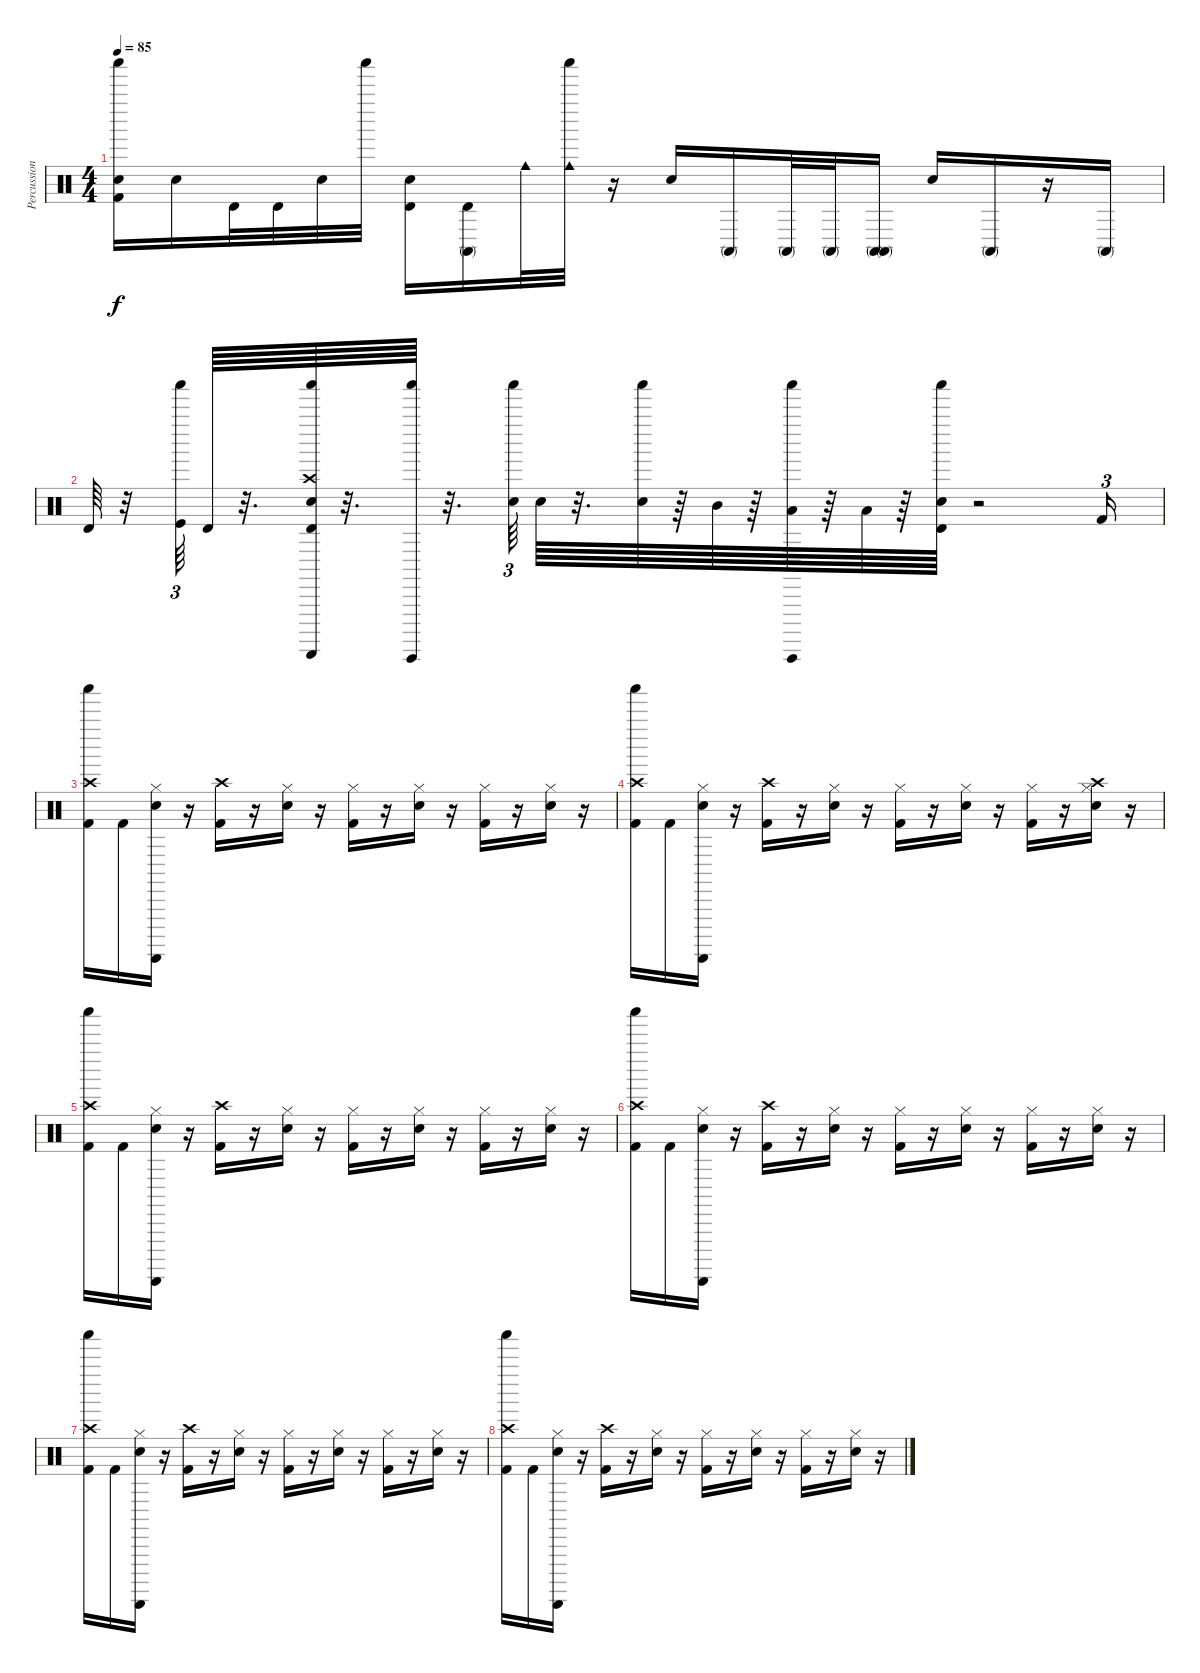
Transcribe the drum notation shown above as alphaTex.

\track ("Percussioni" "Percussion") {instrument percussion}
\staff {score}
\articulation defaults
\ts (4 4)
\tempo 85
\clef neutral
\ks c
("Shaker (hit)" "Electric Snare (hit)" "Kick (hit) 2").16{dy f} "Electric Snare (hit)".16 "Timbale high (hit)".32 "Timbale high (hit)".32 "Snare (hit)".32 "Shaker (hit)".32 ("Timbale high (hit)" "Electric Snare (hit)").16 ("Conga high (mute)" "Timbale high (hit)").16 "Cowbell medium (hit)".32 ("Shaker (hit)" "Cowbell medium (hit)").32 r.16 "Electric Snare (hit)".16 "Conga high (mute)".16 "Conga high (mute)".32 "Conga high (mute)".32 ("Conga high (mute)" "Conga high (mute)").16 "Electric Snare (hit)".16 "Conga high (mute)".16 r.16 "Conga high (mute)".16 |
"Timbale high (hit)".64 r.32 ("Shaker (hit)" "Kick (hit)").64{tu (3 2)} "Timbale high (hit)".64 r.32{d} ("Guiro (scrap-return)" "Shaker (hit)" "Electric Snare (hit)" "Crash high (hit)" "Timbale high (hit)").64 r.32{d} ("Shaker (hit)" "Guiro (hit)").64 r.32{d} ("Shaker (hit)" "Electric Snare (hit)").64{tu (3 2)} "Electric Snare (hit)".64 r.32{d} ("Shaker (hit)" "Electric Snare (hit)").64 r.64 "Mid Tom (hit)".64 r.64 ("Shaker (hit)" "Guiro (hit)" "Low Tom (hit)").64 r.64 "Low Floor Tom (hit)".64 r.64 ("Electric Snare (hit)" "Timbale high (hit)" "Shaker (hit)").64 r.2 "Kick (hit) 2".16{tu (3 2)} |
("Shaker (hit)" "Crash high (hit)" "Kick (hit) 2").16 "Kick (hit) 2".16 ("Hi-Hat (closed)" "Guiro (scrap-return)" "Electric Snare (hit)").16 r.16 ("Crash high (hit)" "Kick (hit) 2").16 r.16 ("Hi-Hat (closed)" "Electric Snare (hit)").16 r.16 ("Hi-Hat (closed)" "Kick (hit) 2").16 r.16 ("Hi-Hat (closed)" "Electric Snare (hit)").16 r.16 ("Hi-Hat (closed)" "Kick (hit) 2").16 r.16 ("Hi-Hat (closed)" "Electric Snare (hit)").16 r.16 |
("Shaker (hit)" "Crash high (hit)" "Kick (hit) 2").16 "Kick (hit) 2".16 ("Hi-Hat (closed)" "Guiro (scrap-return)" "Electric Snare (hit)").16 r.16 ("Crash high (hit)" "Kick (hit) 2").16 r.16 ("Hi-Hat (closed)" "Electric Snare (hit)").16 r.16 ("Hi-Hat (closed)" "Kick (hit) 2").16 r.16 ("Hi-Hat (closed)" "Electric Snare (hit)").16 r.16 ("Hi-Hat (closed)" "Kick (hit) 2").16 r.16 ("Hi-Hat (closed)" "Electric Snare (hit)" "Crash high (hit)").16 r.16 |
("Shaker (hit)" "Crash high (hit)" "Kick (hit) 2").16 "Kick (hit) 2".16 ("Hi-Hat (closed)" "Guiro (scrap-return)" "Electric Snare (hit)").16 r.16 ("Crash high (hit)" "Kick (hit) 2").16 r.16 ("Hi-Hat (closed)" "Electric Snare (hit)").16 r.16 ("Hi-Hat (closed)" "Kick (hit) 2").16 r.16 ("Hi-Hat (closed)" "Electric Snare (hit)").16 r.16 ("Hi-Hat (closed)" "Kick (hit) 2").16 r.16 ("Hi-Hat (closed)" "Electric Snare (hit)").16 r.16 |
("Shaker (hit)" "Crash high (hit)" "Kick (hit) 2").16 "Kick (hit) 2".16 ("Hi-Hat (closed)" "Guiro (scrap-return)" "Electric Snare (hit)").16 r.16 ("Crash high (hit)" "Kick (hit) 2").16 r.16 ("Hi-Hat (closed)" "Electric Snare (hit)").16 r.16 ("Hi-Hat (closed)" "Kick (hit) 2").16 r.16 ("Hi-Hat (closed)" "Electric Snare (hit)").16 r.16 ("Hi-Hat (closed)" "Kick (hit) 2").16 r.16 ("Hi-Hat (closed)" "Electric Snare (hit)").16 r.16 |
("Shaker (hit)" "Crash high (hit)" "Kick (hit) 2").16 "Kick (hit) 2".16 ("Hi-Hat (closed)" "Guiro (scrap-return)" "Electric Snare (hit)").16 r.16 ("Crash high (hit)" "Kick (hit) 2").16 r.16 ("Hi-Hat (closed)" "Electric Snare (hit)").16 r.16 ("Hi-Hat (closed)" "Kick (hit) 2").16 r.16 ("Hi-Hat (closed)" "Electric Snare (hit)").16 r.16 ("Hi-Hat (closed)" "Kick (hit) 2").16 r.16 ("Hi-Hat (closed)" "Electric Snare (hit)").16 r.16 |
("Shaker (hit)" "Crash high (hit)" "Kick (hit) 2").16 "Kick (hit) 2".16 ("Hi-Hat (closed)" "Guiro (scrap-return)" "Electric Snare (hit)").16 r.16 ("Crash high (hit)" "Kick (hit) 2").16 r.16 ("Hi-Hat (closed)" "Electric Snare (hit)").16 r.16 ("Hi-Hat (closed)" "Kick (hit) 2").16 r.16 ("Hi-Hat (closed)" "Electric Snare (hit)").16 r.16 ("Hi-Hat (closed)" "Kick (hit) 2").16 r.16 ("Hi-Hat (closed)" "Electric Snare (hit)").16 r.16
